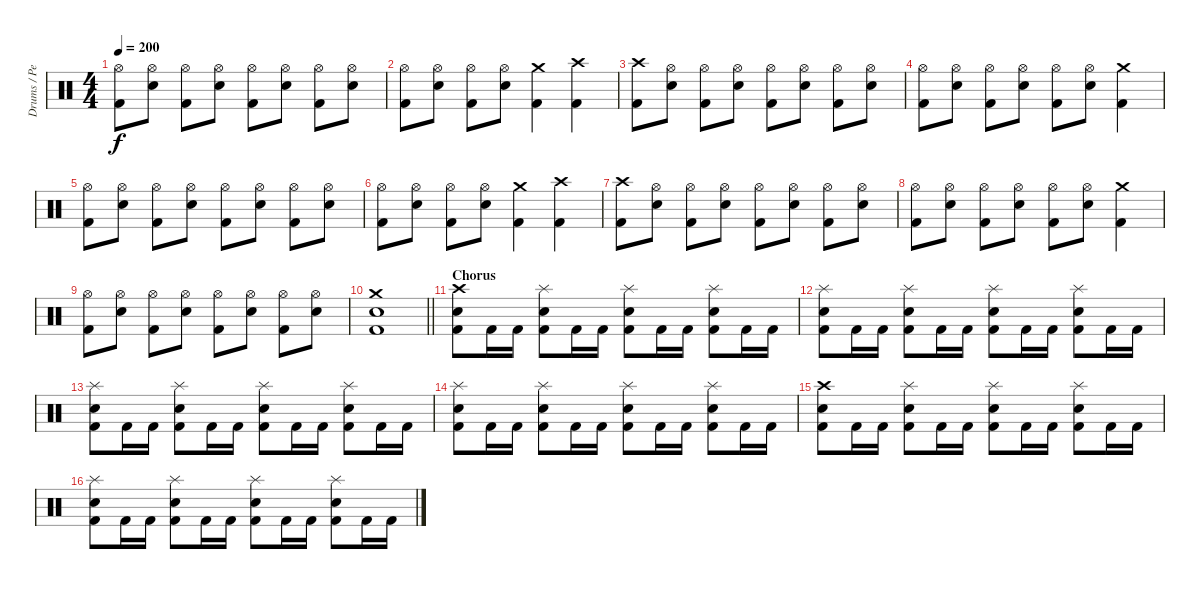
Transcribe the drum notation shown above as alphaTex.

\track ("Drums / Percussion" "Drums / Pe") {instrument percussion}
\staff {score}
\articulation defaults
\ts (4 4)
\tempo 200
\clef neutral
\ks c
("Hi-Hat (open)" "Kick (hit) 2").8{dy f} ("Hi-Hat (open)" "Electric Snare (hit)").8 ("Hi-Hat (open)" "Kick (hit) 2").8 ("Hi-Hat (open)" "Electric Snare (hit)").8 ("Hi-Hat (open)" "Kick (hit) 2").8 ("Hi-Hat (open)" "Electric Snare (hit)").8 ("Hi-Hat (open)" "Kick (hit) 2").8 ("Hi-Hat (open)" "Electric Snare (hit)").8 |
("Hi-Hat (open)" "Kick (hit) 2").8 ("Hi-Hat (open)" "Electric Snare (hit)").8 ("Hi-Hat (open)" "Kick (hit) 2").8 ("Hi-Hat (open)" "Electric Snare (hit)").8 ("Crash medium (hit)" "Kick (hit) 2").4 ("Crash high (hit)" "Kick (hit) 2").4 |
("Crash high (hit)" "Kick (hit) 2").8 ("Hi-Hat (open)" "Electric Snare (hit)").8 ("Hi-Hat (open)" "Kick (hit) 2").8 ("Hi-Hat (open)" "Electric Snare (hit)").8 ("Hi-Hat (open)" "Kick (hit) 2").8 ("Hi-Hat (open)" "Electric Snare (hit)").8 ("Hi-Hat (open)" "Kick (hit) 2").8 ("Hi-Hat (open)" "Electric Snare (hit)").8 |
("Hi-Hat (open)" "Kick (hit) 2").8 ("Hi-Hat (open)" "Electric Snare (hit)").8 ("Hi-Hat (open)" "Kick (hit) 2").8 ("Hi-Hat (open)" "Electric Snare (hit)").8 ("Hi-Hat (open)" "Kick (hit) 2").8 ("Hi-Hat (open)" "Electric Snare (hit)").8 ("Crash medium (hit)" "Kick (hit) 2").4 |
("Hi-Hat (open)" "Kick (hit) 2").8 ("Hi-Hat (open)" "Electric Snare (hit)").8 ("Hi-Hat (open)" "Kick (hit) 2").8 ("Hi-Hat (open)" "Electric Snare (hit)").8 ("Hi-Hat (open)" "Kick (hit) 2").8 ("Hi-Hat (open)" "Electric Snare (hit)").8 ("Hi-Hat (open)" "Kick (hit) 2").8 ("Hi-Hat (open)" "Electric Snare (hit)").8 |
("Hi-Hat (open)" "Kick (hit) 2").8 ("Hi-Hat (open)" "Electric Snare (hit)").8 ("Hi-Hat (open)" "Kick (hit) 2").8 ("Hi-Hat (open)" "Electric Snare (hit)").8 ("Crash medium (hit)" "Kick (hit) 2").4 ("Crash high (hit)" "Kick (hit) 2").4 |
("Crash high (hit)" "Kick (hit) 2").8 ("Hi-Hat (open)" "Electric Snare (hit)").8 ("Hi-Hat (open)" "Kick (hit) 2").8 ("Hi-Hat (open)" "Electric Snare (hit)").8 ("Hi-Hat (open)" "Kick (hit) 2").8 ("Hi-Hat (open)" "Electric Snare (hit)").8 ("Hi-Hat (open)" "Kick (hit) 2").8 ("Hi-Hat (open)" "Electric Snare (hit)").8 |
("Hi-Hat (open)" "Kick (hit) 2").8 ("Hi-Hat (open)" "Electric Snare (hit)").8 ("Hi-Hat (open)" "Kick (hit) 2").8 ("Hi-Hat (open)" "Electric Snare (hit)").8 ("Hi-Hat (open)" "Kick (hit) 2").8 ("Hi-Hat (open)" "Electric Snare (hit)").8 ("Crash medium (hit)" "Kick (hit) 2").4 |
("Hi-Hat (open)" "Kick (hit) 2").8 ("Hi-Hat (open)" "Electric Snare (hit)").8 ("Hi-Hat (open)" "Kick (hit) 2").8 ("Hi-Hat (open)" "Electric Snare (hit)").8 ("Hi-Hat (open)" "Kick (hit) 2").8 ("Hi-Hat (open)" "Electric Snare (hit)").8 ("Hi-Hat (open)" "Kick (hit) 2").8 ("Hi-Hat (open)" "Electric Snare (hit)").8 |
\barLineRight lightlight
("Crash medium (hit)" "Electric Snare (hit)" "Kick (hit) 2").1 |
\section ("" "Chorus")
("Crash high (hit)" "Electric Snare (hit)" "Kick (hit) 2").8 "Kick (hit) 2".16 "Kick (hit) 2".16 ("Splash (hit)" "Electric Snare (hit)" "Kick (hit) 2").8 "Kick (hit) 2".16 "Kick (hit) 2".16 ("Splash (hit)" "Electric Snare (hit)" "Kick (hit) 2").8 "Kick (hit) 2".16 "Kick (hit) 2".16 ("Splash (hit)" "Electric Snare (hit)" "Kick (hit) 2").8 "Kick (hit) 2".16 "Kick (hit) 2".16 |
("Splash (hit)" "Electric Snare (hit)" "Kick (hit) 2").8 "Kick (hit) 2".16 "Kick (hit) 2".16 ("Splash (hit)" "Electric Snare (hit)" "Kick (hit) 2").8 "Kick (hit) 2".16 "Kick (hit) 2".16 ("Splash (hit)" "Electric Snare (hit)" "Kick (hit) 2").8 "Kick (hit) 2".16 "Kick (hit) 2".16 ("Splash (hit)" "Electric Snare (hit)" "Kick (hit) 2").8 "Kick (hit) 2".16 "Kick (hit) 2".16 |
("Splash (hit)" "Electric Snare (hit)" "Kick (hit) 2").8 "Kick (hit) 2".16 "Kick (hit) 2".16 ("Splash (hit)" "Electric Snare (hit)" "Kick (hit) 2").8 "Kick (hit) 2".16 "Kick (hit) 2".16 ("Splash (hit)" "Electric Snare (hit)" "Kick (hit) 2").8 "Kick (hit) 2".16 "Kick (hit) 2".16 ("Splash (hit)" "Electric Snare (hit)" "Kick (hit) 2").8 "Kick (hit) 2".16 "Kick (hit) 2".16 |
("Splash (hit)" "Electric Snare (hit)" "Kick (hit) 2").8 "Kick (hit) 2".16 "Kick (hit) 2".16 ("Splash (hit)" "Electric Snare (hit)" "Kick (hit) 2").8 "Kick (hit) 2".16 "Kick (hit) 2".16 ("Splash (hit)" "Electric Snare (hit)" "Kick (hit) 2").8 "Kick (hit) 2".16 "Kick (hit) 2".16 ("Splash (hit)" "Electric Snare (hit)" "Kick (hit) 2").8 "Kick (hit) 2".16 "Kick (hit) 2".16 |
("Crash high (hit)" "Electric Snare (hit)" "Kick (hit) 2").8 "Kick (hit) 2".16 "Kick (hit) 2".16 ("Splash (hit)" "Electric Snare (hit)" "Kick (hit) 2").8 "Kick (hit) 2".16 "Kick (hit) 2".16 ("Splash (hit)" "Electric Snare (hit)" "Kick (hit) 2").8 "Kick (hit) 2".16 "Kick (hit) 2".16 ("Splash (hit)" "Electric Snare (hit)" "Kick (hit) 2").8 "Kick (hit) 2".16 "Kick (hit) 2".16 |
("Splash (hit)" "Electric Snare (hit)" "Kick (hit) 2").8 "Kick (hit) 2".16 "Kick (hit) 2".16 ("Splash (hit)" "Electric Snare (hit)" "Kick (hit) 2").8 "Kick (hit) 2".16 "Kick (hit) 2".16 ("Splash (hit)" "Electric Snare (hit)" "Kick (hit) 2").8 "Kick (hit) 2".16 "Kick (hit) 2".16 ("Splash (hit)" "Electric Snare (hit)" "Kick (hit) 2").8 "Kick (hit) 2".16 "Kick (hit) 2".16
